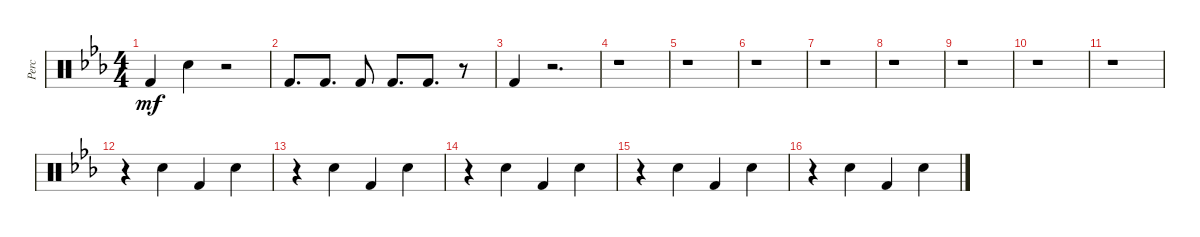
\defaultSystemsLayout 4
\bracketExtendMode groupsimilarinstruments
\otherSystemsTrackNameOrientation horizontal
\track ("Percussions" "Perc") {instrument percussion}
\staff {score}
\articulation defaults
\ts (4 4)
\tempo (140 hide)
\clef neutral
\ks cminor "Kick (hit) 2"{acc forcenatural}.4{dy mf beam Up} "Snare (hit) 2"{acc forcenatural}.4{beam Down}
r.2{beam Down} |
"Kick (hit) 2"{acc forcenatural}.8{d beam Up} "Kick (hit) 2"{acc forcenatural}.8{d beam Up} "Kick (hit) 2"{acc forcenatural}.8{beam Up} "Kick (hit) 2"{acc forcenatural}.8{d beam Up} "Kick (hit) 2"{acc forcenatural}.8{d beam Up} r.8{beam Up} |
"Kick (hit) 2"{acc forcenatural}.4{beam Up} r.2{d beam Up} |
r.1{beam Down} |
r.1{beam Down} |
r.1{beam Down} |
r.1{beam Down} |
r.1{beam Down} |
r.1{beam Down} |
r.1{beam Down} |
r.1{beam Down} |
r.4{beam Down} "Snare (hit) 2"{acc forcenatural}.4{beam Down} "Kick (hit) 2"{acc forcenatural}.4{beam Up} "Snare (hit) 2"{acc forcenatural}.4{beam Down} |
r.4{beam Down} "Snare (hit) 2"{acc forcenatural}.4{beam Down} "Kick (hit) 2"{acc forcenatural}.4{beam Up} "Snare (hit) 2"{acc forcenatural}.4{beam Down} |
r.4{beam Down} "Snare (hit) 2"{acc forcenatural}.4{beam Down} "Kick (hit) 2"{acc forcenatural}.4{beam Up} "Snare (hit) 2"{acc forcenatural}.4{beam Down} |
r.4{beam Down} "Snare (hit) 2"{acc forcenatural}.4{beam Down} "Kick (hit) 2"{acc forcenatural}.4{beam Up} "Snare (hit) 2"{acc forcenatural}.4{beam Down} |
r.4{beam Down} "Snare (hit) 2"{acc forcenatural}.4{beam Down} "Kick (hit) 2"{acc forcenatural}.4{beam Up} "Snare (hit) 2"{acc forcenatural}.4{beam Down}
